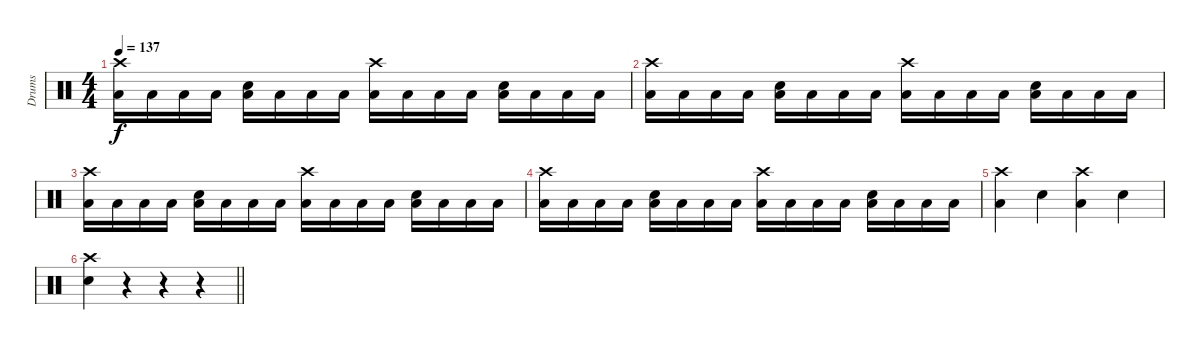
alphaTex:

\track ("Drums" "Drums") {instrument percussion}
\staff {score}
\articulation defaults
\ts (4 4)
\tempo 137
\clef neutral
\ks c
("Crash high (hit)" "Low Floor Tom (hit)").16{dy f} "Low Floor Tom (hit)".16 "Low Floor Tom (hit)".16 "Low Floor Tom (hit)".16 ("Electric Snare (hit)" "Low Floor Tom (hit)").16 "Low Floor Tom (hit)".16 "Low Floor Tom (hit)".16 "Low Floor Tom (hit)".16 ("Crash high (hit)" "Low Floor Tom (hit)").16 "Low Floor Tom (hit)".16 "Low Floor Tom (hit)".16 "Low Floor Tom (hit)".16 ("Electric Snare (hit)" "Low Floor Tom (hit)").16 "Low Floor Tom (hit)".16 "Low Floor Tom (hit)".16 "Low Floor Tom (hit)".16 |
("Crash high (hit)" "Low Floor Tom (hit)").16 "Low Floor Tom (hit)".16 "Low Floor Tom (hit)".16 "Low Floor Tom (hit)".16 ("Electric Snare (hit)" "Low Floor Tom (hit)").16 "Low Floor Tom (hit)".16 "Low Floor Tom (hit)".16 "Low Floor Tom (hit)".16 ("Crash high (hit)" "Low Floor Tom (hit)").16 "Low Floor Tom (hit)".16 "Low Floor Tom (hit)".16 "Low Floor Tom (hit)".16 ("Electric Snare (hit)" "Low Floor Tom (hit)").16 "Low Floor Tom (hit)".16 "Low Floor Tom (hit)".16 "Low Floor Tom (hit)".16 |
("Crash high (hit)" "Low Floor Tom (hit)").16 "Low Floor Tom (hit)".16 "Low Floor Tom (hit)".16 "Low Floor Tom (hit)".16 ("Electric Snare (hit)" "Low Floor Tom (hit)").16 "Low Floor Tom (hit)".16 "Low Floor Tom (hit)".16 "Low Floor Tom (hit)".16 ("Crash high (hit)" "Low Floor Tom (hit)").16 "Low Floor Tom (hit)".16 "Low Floor Tom (hit)".16 "Low Floor Tom (hit)".16 ("Electric Snare (hit)" "Low Floor Tom (hit)").16 "Low Floor Tom (hit)".16 "Low Floor Tom (hit)".16 "Low Floor Tom (hit)".16 |
("Crash high (hit)" "Low Floor Tom (hit)").16 "Low Floor Tom (hit)".16 "Low Floor Tom (hit)".16 "Low Floor Tom (hit)".16 ("Electric Snare (hit)" "Low Floor Tom (hit)").16 "Low Floor Tom (hit)".16 "Low Floor Tom (hit)".16 "Low Floor Tom (hit)".16 ("Crash high (hit)" "Low Floor Tom (hit)").16 "Low Floor Tom (hit)".16 "Low Floor Tom (hit)".16 "Low Floor Tom (hit)".16 ("Electric Snare (hit)" "Low Floor Tom (hit)").16 "Low Floor Tom (hit)".16 "Low Floor Tom (hit)".16 "Low Floor Tom (hit)".16 |
("Crash high (hit)" "Low Floor Tom (hit)").4 "Electric Snare (hit)".4 ("Crash high (hit)" "Low Floor Tom (hit)").4 "Electric Snare (hit)".4 |
\barLineRight lightlight
("Crash high (hit)" "Electric Snare (hit)").4 r.4 r.4 r.4
